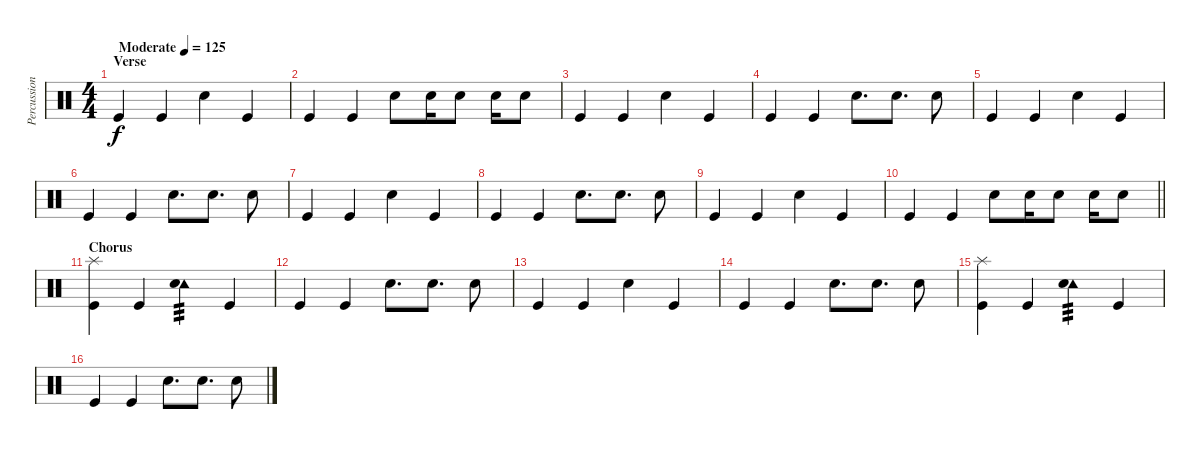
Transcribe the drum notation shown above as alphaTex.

\track ("Percussion" "Percussion") {instrument percussion}
\staff {score}
\articulation defaults
\ts (4 4)
\section ("" "Verse")
\tempo (125 "Moderate")
\clef neutral
\ks c "Kick (hit)".4{dy f} "Kick (hit)".4 "Snare (hit) 2".4 "Kick (hit)".4
|
"Kick (hit)".4 "Kick (hit)".4 "Snare (hit) 2".8 "Snare (hit) 2".16 "Snare (hit) 2".8 "Snare (hit) 2".16 "Snare (hit) 2".8 |
"Kick (hit)".4 "Kick (hit)".4 "Snare (hit) 2".4 "Kick (hit)".4 |
"Kick (hit)".4 "Kick (hit)".4 "Snare (hit) 2".8{d} "Snare (hit) 2".8{d} "Snare (hit) 2".8 |
"Kick (hit)".4 "Kick (hit)".4 "Snare (hit) 2".4 "Kick (hit)".4 |
"Kick (hit)".4 "Kick (hit)".4 "Snare (hit) 2".8{d} "Snare (hit) 2".8{d} "Snare (hit) 2".8 |
"Kick (hit)".4 "Kick (hit)".4 "Snare (hit) 2".4 "Kick (hit)".4 |
"Kick (hit)".4 "Kick (hit)".4 "Snare (hit) 2".8{d} "Snare (hit) 2".8{d} "Snare (hit) 2".8 |
"Kick (hit)".4 "Kick (hit)".4 "Snare (hit) 2".4 "Kick (hit)".4 |
\barLineRight lightlight "Kick (hit)".4 "Kick (hit)".4 "Snare (hit) 2".8 "Snare (hit) 2".16 "Snare (hit) 2".8 "Snare (hit) 2".16 "Snare (hit) 2".8
|
\section ("" "Chorus")
("Splash (hit)" "Kick (hit)").4 "Kick (hit)".4 ("Tambourine (hit)" "Snare (hit) 2").4{tp 3} "Kick (hit)".4 |
"Kick (hit)".4 "Kick (hit)".4 "Snare (hit) 2".8{d} "Snare (hit) 2".8{d} "Snare (hit) 2".8 |
"Kick (hit)".4 "Kick (hit)".4 "Snare (hit) 2".4 "Kick (hit)".4 |
"Kick (hit)".4 "Kick (hit)".4 "Snare (hit) 2".8{d} "Snare (hit) 2".8{d} "Snare (hit) 2".8 |
("Splash (hit)" "Kick (hit)").4 "Kick (hit)".4 ("Tambourine (hit)" "Snare (hit) 2").4{tp 3} "Kick (hit)".4 |
"Kick (hit)".4 "Kick (hit)".4 "Snare (hit) 2".8{d} "Snare (hit) 2".8{d} "Snare (hit) 2".8
